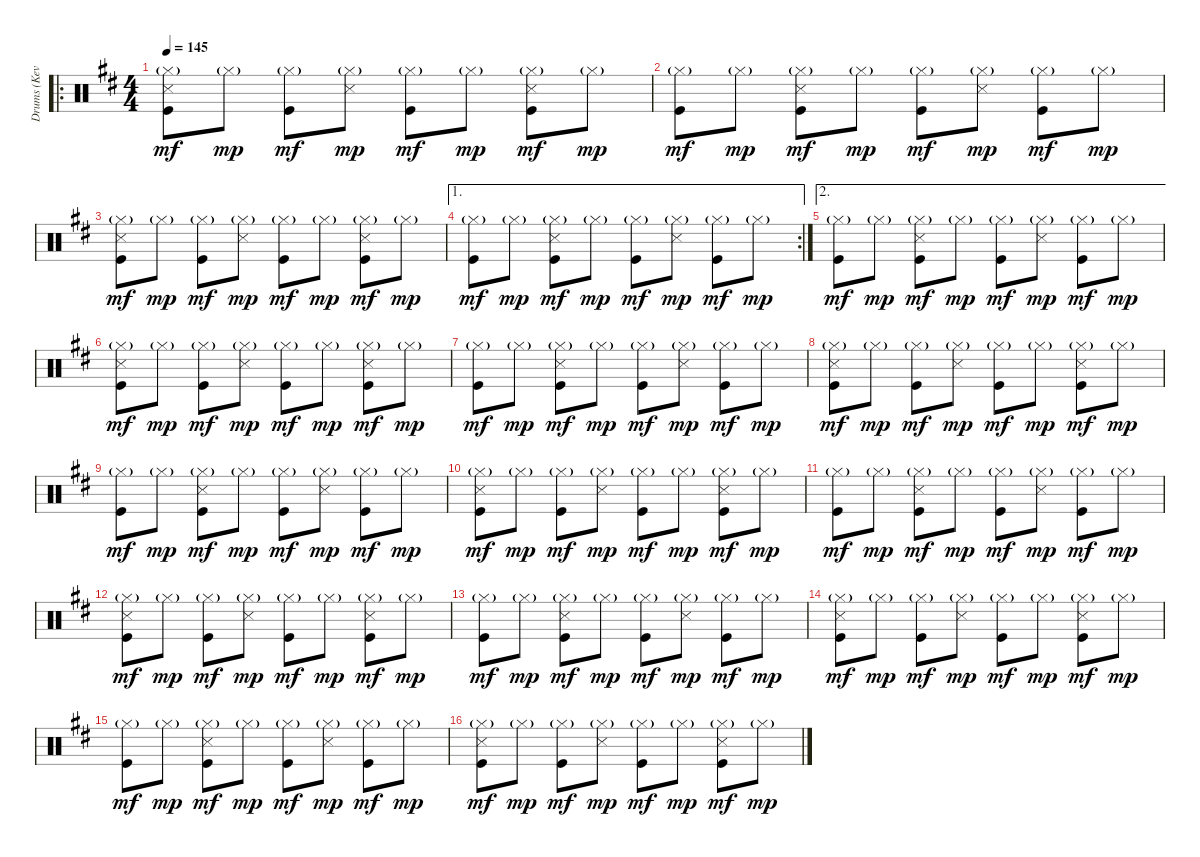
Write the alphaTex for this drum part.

\track ("Drums (Kevin Haskins)" "Drums (Kev") {instrument percussion}
\staff {score}
\articulation defaults
\ro
\ts (4 4)
\tempo 145
\clef neutral
\ks d
("Hi-Hat (closed)"{g} "Snare (side stick) 3" "Kick (hit)").8{dy mf} "Hi-Hat (closed)"{g}.8{dy mp} ("Hi-Hat (closed)"{g} "Kick (hit)").8{dy mf} ("Hi-Hat (closed)"{g} "Snare (side stick) 3").8{dy mp} ("Hi-Hat (closed)"{g} "Kick (hit)").8{dy mf} "Hi-Hat (closed)"{g}.8{dy mp} ("Hi-Hat (closed)"{g} "Snare (side stick) 3" "Kick (hit)").8{dy mf} "Hi-Hat (closed)"{g}.8{dy mp} |
("Hi-Hat (closed)"{g} "Kick (hit)").8{dy mf} "Hi-Hat (closed)"{g}.8{dy mp} ("Hi-Hat (closed)"{g} "Snare (side stick) 3" "Kick (hit)").8{dy mf} "Hi-Hat (closed)"{g}.8{dy mp} ("Hi-Hat (closed)"{g} "Kick (hit)").8{dy mf} ("Hi-Hat (closed)"{g} "Snare (side stick) 3").8{dy mp} ("Hi-Hat (closed)"{g} "Kick (hit)").8{dy mf} "Hi-Hat (closed)"{g}.8{dy mp} |
("Hi-Hat (closed)"{g} "Snare (side stick) 3" "Kick (hit)").8{dy mf} "Hi-Hat (closed)"{g}.8{dy mp} ("Hi-Hat (closed)"{g} "Kick (hit)").8{dy mf} ("Hi-Hat (closed)"{g} "Snare (side stick) 3").8{dy mp} ("Hi-Hat (closed)"{g} "Kick (hit)").8{dy mf} "Hi-Hat (closed)"{g}.8{dy mp} ("Hi-Hat (closed)"{g} "Snare (side stick) 3" "Kick (hit)").8{dy mf} "Hi-Hat (closed)"{g}.8{dy mp} |
\ae 1
\rc 2
("Hi-Hat (closed)"{g} "Kick (hit)").8{dy mf} "Hi-Hat (closed)"{g}.8{dy mp} ("Hi-Hat (closed)"{g} "Snare (side stick) 3" "Kick (hit)").8{dy mf} "Hi-Hat (closed)"{g}.8{dy mp} ("Hi-Hat (closed)"{g} "Kick (hit)").8{dy mf} ("Hi-Hat (closed)"{g} "Snare (side stick) 3").8{dy mp} ("Hi-Hat (closed)"{g} "Kick (hit)").8{dy mf} "Hi-Hat (closed)"{g}.8{dy mp} |
\ae 2
("Hi-Hat (closed)"{g} "Kick (hit)").8{dy mf} "Hi-Hat (closed)"{g}.8{dy mp} ("Hi-Hat (closed)"{g} "Snare (side stick) 3" "Kick (hit)").8{dy mf} "Hi-Hat (closed)"{g}.8{dy mp} ("Hi-Hat (closed)"{g} "Kick (hit)").8{dy mf} ("Hi-Hat (closed)"{g} "Snare (side stick) 3").8{dy mp} ("Hi-Hat (closed)"{g} "Kick (hit)").8{dy mf} "Hi-Hat (closed)"{g}.8{dy mp} |
("Hi-Hat (closed)"{g} "Snare (side stick) 3" "Kick (hit)").8{dy mf} "Hi-Hat (closed)"{g}.8{dy mp} ("Hi-Hat (closed)"{g} "Kick (hit)").8{dy mf} ("Hi-Hat (closed)"{g} "Snare (side stick) 3").8{dy mp} ("Hi-Hat (closed)"{g} "Kick (hit)").8{dy mf} "Hi-Hat (closed)"{g}.8{dy mp} ("Hi-Hat (closed)"{g} "Snare (side stick) 3" "Kick (hit)").8{dy mf} "Hi-Hat (closed)"{g}.8{dy mp} |
("Hi-Hat (closed)"{g} "Kick (hit)").8{dy mf} "Hi-Hat (closed)"{g}.8{dy mp} ("Hi-Hat (closed)"{g} "Snare (side stick) 3" "Kick (hit)").8{dy mf} "Hi-Hat (closed)"{g}.8{dy mp} ("Hi-Hat (closed)"{g} "Kick (hit)").8{dy mf} ("Hi-Hat (closed)"{g} "Snare (side stick) 3").8{dy mp} ("Hi-Hat (closed)"{g} "Kick (hit)").8{dy mf} "Hi-Hat (closed)"{g}.8{dy mp} |
("Hi-Hat (closed)"{g} "Snare (side stick) 3" "Kick (hit)").8{dy mf} "Hi-Hat (closed)"{g}.8{dy mp} ("Hi-Hat (closed)"{g} "Kick (hit)").8{dy mf} ("Hi-Hat (closed)"{g} "Snare (side stick) 3").8{dy mp} ("Hi-Hat (closed)"{g} "Kick (hit)").8{dy mf} "Hi-Hat (closed)"{g}.8{dy mp} ("Hi-Hat (closed)"{g} "Snare (side stick) 3" "Kick (hit)").8{dy mf} "Hi-Hat (closed)"{g}.8{dy mp} |
("Hi-Hat (closed)"{g} "Kick (hit)").8{dy mf} "Hi-Hat (closed)"{g}.8{dy mp} ("Hi-Hat (closed)"{g} "Snare (side stick) 3" "Kick (hit)").8{dy mf} "Hi-Hat (closed)"{g}.8{dy mp} ("Hi-Hat (closed)"{g} "Kick (hit)").8{dy mf} ("Hi-Hat (closed)"{g} "Snare (side stick) 3").8{dy mp} ("Hi-Hat (closed)"{g} "Kick (hit)").8{dy mf} "Hi-Hat (closed)"{g}.8{dy mp} |
("Hi-Hat (closed)"{g} "Snare (side stick) 3" "Kick (hit)").8{dy mf} "Hi-Hat (closed)"{g}.8{dy mp} ("Hi-Hat (closed)"{g} "Kick (hit)").8{dy mf} ("Hi-Hat (closed)"{g} "Snare (side stick) 3").8{dy mp} ("Hi-Hat (closed)"{g} "Kick (hit)").8{dy mf} "Hi-Hat (closed)"{g}.8{dy mp} ("Hi-Hat (closed)"{g} "Snare (side stick) 3" "Kick (hit)").8{dy mf} "Hi-Hat (closed)"{g}.8{dy mp} |
("Hi-Hat (closed)"{g} "Kick (hit)").8{dy mf} "Hi-Hat (closed)"{g}.8{dy mp} ("Hi-Hat (closed)"{g} "Snare (side stick) 3" "Kick (hit)").8{dy mf} "Hi-Hat (closed)"{g}.8{dy mp} ("Hi-Hat (closed)"{g} "Kick (hit)").8{dy mf} ("Hi-Hat (closed)"{g} "Snare (side stick) 3").8{dy mp} ("Hi-Hat (closed)"{g} "Kick (hit)").8{dy mf} "Hi-Hat (closed)"{g}.8{dy mp} |
("Hi-Hat (closed)"{g} "Snare (side stick) 3" "Kick (hit)").8{dy mf} "Hi-Hat (closed)"{g}.8{dy mp} ("Hi-Hat (closed)"{g} "Kick (hit)").8{dy mf} ("Hi-Hat (closed)"{g} "Snare (side stick) 3").8{dy mp} ("Hi-Hat (closed)"{g} "Kick (hit)").8{dy mf} "Hi-Hat (closed)"{g}.8{dy mp} ("Hi-Hat (closed)"{g} "Snare (side stick) 3" "Kick (hit)").8{dy mf} "Hi-Hat (closed)"{g}.8{dy mp} |
("Hi-Hat (closed)"{g} "Kick (hit)").8{dy mf} "Hi-Hat (closed)"{g}.8{dy mp} ("Hi-Hat (closed)"{g} "Snare (side stick) 3" "Kick (hit)").8{dy mf} "Hi-Hat (closed)"{g}.8{dy mp} ("Hi-Hat (closed)"{g} "Kick (hit)").8{dy mf} ("Hi-Hat (closed)"{g} "Snare (side stick) 3").8{dy mp} ("Hi-Hat (closed)"{g} "Kick (hit)").8{dy mf} "Hi-Hat (closed)"{g}.8{dy mp} |
("Hi-Hat (closed)"{g} "Snare (side stick) 3" "Kick (hit)").8{dy mf} "Hi-Hat (closed)"{g}.8{dy mp} ("Hi-Hat (closed)"{g} "Kick (hit)").8{dy mf} ("Hi-Hat (closed)"{g} "Snare (side stick) 3").8{dy mp} ("Hi-Hat (closed)"{g} "Kick (hit)").8{dy mf} "Hi-Hat (closed)"{g}.8{dy mp} ("Hi-Hat (closed)"{g} "Snare (side stick) 3" "Kick (hit)").8{dy mf} "Hi-Hat (closed)"{g}.8{dy mp} |
("Hi-Hat (closed)"{g} "Kick (hit)").8{dy mf} "Hi-Hat (closed)"{g}.8{dy mp} ("Hi-Hat (closed)"{g} "Snare (side stick) 3" "Kick (hit)").8{dy mf} "Hi-Hat (closed)"{g}.8{dy mp} ("Hi-Hat (closed)"{g} "Kick (hit)").8{dy mf} ("Hi-Hat (closed)"{g} "Snare (side stick) 3").8{dy mp} ("Hi-Hat (closed)"{g} "Kick (hit)").8{dy mf} "Hi-Hat (closed)"{g}.8{dy mp} |
("Hi-Hat (closed)"{g} "Snare (side stick) 3" "Kick (hit)").8{dy mf} "Hi-Hat (closed)"{g}.8{dy mp} ("Hi-Hat (closed)"{g} "Kick (hit)").8{dy mf} ("Hi-Hat (closed)"{g} "Snare (side stick) 3").8{dy mp} ("Hi-Hat (closed)"{g} "Kick (hit)").8{dy mf} "Hi-Hat (closed)"{g}.8{dy mp} ("Hi-Hat (closed)"{g} "Snare (side stick) 3" "Kick (hit)").8{dy mf} "Hi-Hat (closed)"{g}.8{dy mp}
